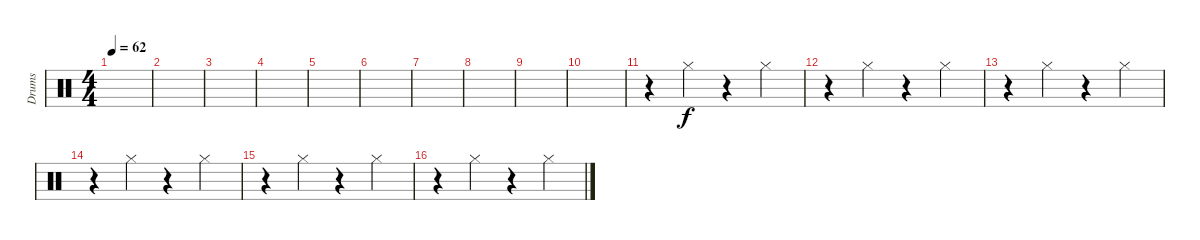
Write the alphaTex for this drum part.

\track ("Drums" "Drums") {instrument percussion}
\staff {score}
\articulation defaults
\ts (4 4)
\tempo 62
\clef neutral
\ks c
|
|
|
|
|
|
|
|
|
|
r.4 "Hi-Hat (closed)".4 r.4 "Hi-Hat (closed)".4 |
r.4 "Hi-Hat (closed)".4 r.4 "Hi-Hat (closed)".4 |
r.4 "Hi-Hat (closed)".4 r.4 "Hi-Hat (closed)".4 |
r.4 "Hi-Hat (closed)".4 r.4 "Hi-Hat (closed)".4 |
r.4 "Hi-Hat (closed)".4 r.4 "Hi-Hat (closed)".4 |
r.4 "Hi-Hat (closed)".4 r.4 "Hi-Hat (closed)".4
